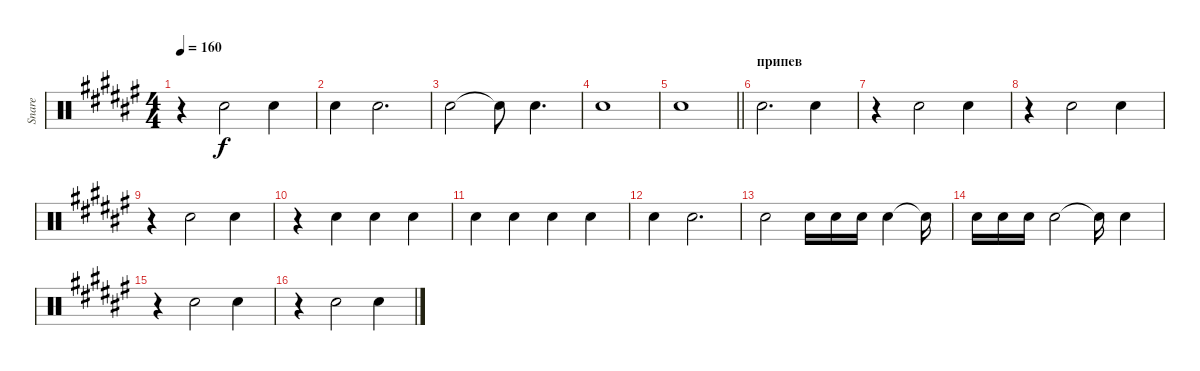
\track ("Snare" "Snare") {instrument percussion}
\staff {score}
\articulation defaults
\ts (4 4)
\tempo 160
\clef neutral
\ks d#minor
r.4{dy f} "Electric Snare (hit)".2 "Electric Snare (hit)".4 |
"Electric Snare (hit)".4 "Electric Snare (hit)".2{d} |
"Electric Snare (hit)".2 "Electric Snare (hit)"{t}.8 "Electric Snare (hit)".4{d} |
"Electric Snare (hit)".1 |
\barLineRight lightlight "Electric Snare (hit)".1
|
\section ("" "припев")
"Electric Snare (hit)".2{d} "Electric Snare (hit)".4 |
r.4 "Electric Snare (hit)".2 "Electric Snare (hit)".4 |
r.4 "Electric Snare (hit)".2 "Electric Snare (hit)".4 |
r.4 "Electric Snare (hit)".2 "Electric Snare (hit)".4 |
r.4 "Electric Snare (hit)".4 "Electric Snare (hit)".4 "Electric Snare (hit)".4 |
"Electric Snare (hit)".4 "Electric Snare (hit)".4 "Electric Snare (hit)".4 "Electric Snare (hit)".4 |
"Electric Snare (hit)".4 "Electric Snare (hit)".2{d} |
"Electric Snare (hit)".2 "Electric Snare (hit)".16 "Electric Snare (hit)".16 "Electric Snare (hit)".16 "Electric Snare (hit)".4 "Electric Snare (hit)"{t}.16 |
"Electric Snare (hit)".16 "Electric Snare (hit)".16 "Electric Snare (hit)".16 "Electric Snare (hit)".2 "Electric Snare (hit)"{t}.16 "Electric Snare (hit)".4 |
r.4 "Electric Snare (hit)".2 "Electric Snare (hit)".4 |
r.4 "Electric Snare (hit)".2 "Electric Snare (hit)".4
